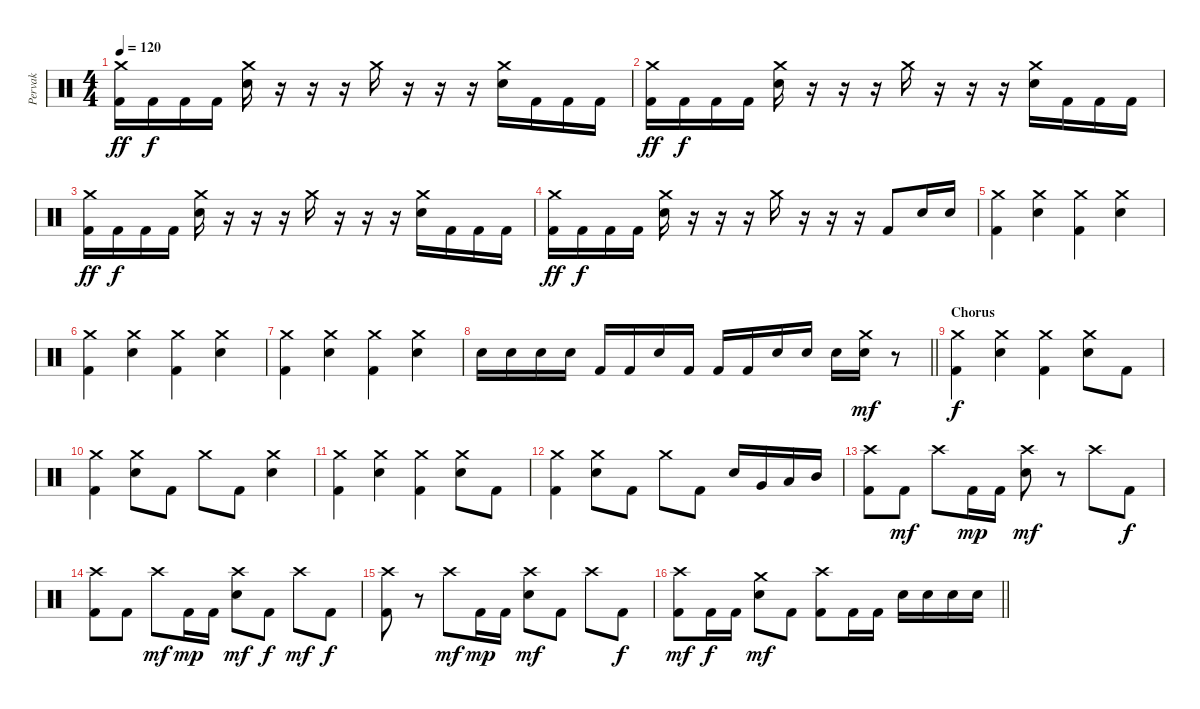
\track ("Pervak" "Pervak") {instrument percussion}
\staff {score}
\articulation defaults
\ts (4 4)
\tempo 120
\clef neutral
\ks c
("Crash medium (hit)" "Kick (hit) 2").16{dy ff} "Kick (hit) 2".16{dy f} "Kick (hit) 2".16 "Kick (hit) 2".16 ("Crash medium (hit)" "Electric Snare (hit)").16 r.16 r.16 r.16 "Crash medium (hit)".16 r.16 r.16 r.16 ("Crash medium (hit)" "Electric Snare (hit)").16 "Kick (hit) 2".16 "Kick (hit) 2".16 "Kick (hit) 2".16 |
("Crash medium (hit)" "Kick (hit) 2").16{dy ff} "Kick (hit) 2".16{dy f} "Kick (hit) 2".16 "Kick (hit) 2".16 ("Crash medium (hit)" "Electric Snare (hit)").16 r.16 r.16 r.16 "Crash medium (hit)".16 r.16 r.16 r.16 ("Crash medium (hit)" "Electric Snare (hit)").16 "Kick (hit) 2".16 "Kick (hit) 2".16 "Kick (hit) 2".16 |
("Crash medium (hit)" "Kick (hit) 2").16{dy ff} "Kick (hit) 2".16{dy f} "Kick (hit) 2".16 "Kick (hit) 2".16 ("Crash medium (hit)" "Electric Snare (hit)").16 r.16 r.16 r.16 "Crash medium (hit)".16 r.16 r.16 r.16 ("Crash medium (hit)" "Electric Snare (hit)").16 "Kick (hit) 2".16 "Kick (hit) 2".16 "Kick (hit) 2".16 |
("Crash medium (hit)" "Kick (hit) 2").16{dy ff} "Kick (hit) 2".16{dy f} "Kick (hit) 2".16 "Kick (hit) 2".16 ("Crash medium (hit)" "Electric Snare (hit)").16 r.16 r.16 r.16 "Crash medium (hit)".16 r.16 r.16 r.16 "Kick (hit) 2".8 "Electric Snare (hit)".16 "Electric Snare (hit)".16 |
("Crash medium (hit)" "Kick (hit) 2").4 ("Crash medium (hit)" "Electric Snare (hit)").4 ("Crash medium (hit)" "Kick (hit) 2").4 ("Crash medium (hit)" "Electric Snare (hit)").4 |
("Crash medium (hit)" "Kick (hit) 2").4 ("Crash medium (hit)" "Electric Snare (hit)").4 ("Crash medium (hit)" "Kick (hit) 2").4 ("Crash medium (hit)" "Electric Snare (hit)").4 |
("Crash medium (hit)" "Kick (hit) 2").4 ("Crash medium (hit)" "Electric Snare (hit)").4 ("Crash medium (hit)" "Kick (hit) 2").4 ("Crash medium (hit)" "Electric Snare (hit)").4 |
\barLineRight lightlight "Electric Snare (hit)".16 "Electric Snare (hit)".16 "Electric Snare (hit)".16 "Electric Snare (hit)".16 "Kick (hit) 2".16 "Kick (hit) 2".16 "Electric Snare (hit)".16 "Kick (hit) 2".16 "Kick (hit) 2".16 "Kick (hit) 2".16 "Electric Snare (hit)".16 "Electric Snare (hit)".16 "Electric Snare (hit)".16
("Crash medium (hit)" "Electric Snare (hit)").16{dy mf} r.8 |
\section ("" "Chorus")
("Crash medium (hit)" "Kick (hit) 2").4{dy f} ("Crash medium (hit)" "Electric Snare (hit)").4 ("Crash medium (hit)" "Kick (hit) 2").4 ("Crash medium (hit)" "Electric Snare (hit)").8 "Kick (hit) 2".8 |
("Crash medium (hit)" "Kick (hit) 2").4 ("Crash medium (hit)" "Electric Snare (hit)").8 "Kick (hit) 2".8 "Crash medium (hit)".8 "Kick (hit) 2".8 ("Crash medium (hit)" "Electric Snare (hit)").4 |
("Crash medium (hit)" "Kick (hit) 2").4 ("Crash medium (hit)" "Electric Snare (hit)").4 ("Crash medium (hit)" "Kick (hit) 2").4 ("Crash medium (hit)" "Electric Snare (hit)").8 "Kick (hit) 2".8 |
("Crash medium (hit)" "Kick (hit) 2").4 ("Crash medium (hit)" "Electric Snare (hit)").8 "Kick (hit) 2".8 "Crash medium (hit)".8 "Kick (hit) 2".8 "Electric Snare (hit)".16 "Very Low Tom (hit)".16 "Low Tom (hit)".16 "Mid Tom (hit)".16 |
("Crash high (hit)" "Kick (hit) 2").8 "Kick (hit) 2".8{dy mf} "Crash high (hit)".8 "Kick (hit) 2".16{dy mp} "Kick (hit) 2".16 ("Crash high (hit)" "Electric Snare (hit)").8{dy mf} r.8 "Crash high (hit)".8 "Kick (hit) 2".8{dy f} |
("Crash high (hit)" "Kick (hit) 2").8 "Kick (hit) 2".8 "Crash high (hit)".8{dy mf} "Kick (hit) 2".16{dy mp} "Kick (hit) 2".16 ("Crash high (hit)" "Electric Snare (hit)").8{dy mf} "Kick (hit) 2".8{dy f} "Crash high (hit)".8{dy mf} "Kick (hit) 2".8{dy f} |
("Crash high (hit)" "Kick (hit) 2").8 r.8 "Crash high (hit)".8{dy mf} "Kick (hit) 2".16{dy mp} "Kick (hit) 2".16 ("Crash high (hit)" "Electric Snare (hit)").8{dy mf} "Kick (hit) 2".8 "Crash high (hit)".8 "Kick (hit) 2".8{dy f} |
\barLineRight lightlight
("Crash high (hit)" "Kick (hit) 2").8{dy mf} "Kick (hit) 2".16{dy f} "Kick (hit) 2".16 ("Crash medium (hit)" "Electric Snare (hit)").8{dy mf} "Kick (hit) 2".8 ("Crash high (hit)" "Kick (hit) 2").8 "Kick (hit) 2".16 "Kick (hit) 2".16 "Electric Snare (hit)".16 "Electric Snare (hit)".16 "Electric Snare (hit)".16 "Electric Snare (hit)".16
